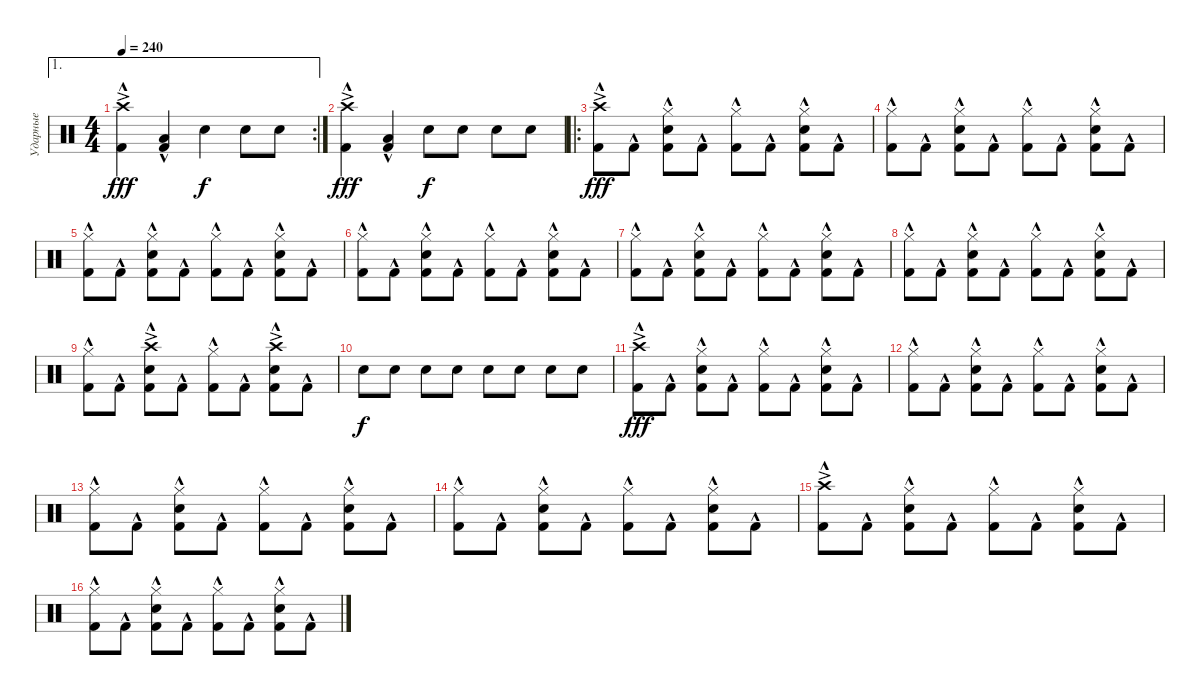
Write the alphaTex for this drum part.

\track ("Ударные" "Ударные") {instrument percussion}
\staff {score}
\articulation defaults
\ae 1
\rc 2
\ts (4 4)
\tempo 240
\clef neutral
\ks c
("Crash high (hit)"{ac} "Kick (hit) 2"{hac}).4{dy fff} ("Low Floor Tom (hit)"{hac} "Kick (hit) 2"{hac}).4 "Snare (hit) 2".4{dy f} "Snare (hit) 2".8 "Snare (hit) 2".8 |
("Crash high (hit)"{ac} "Kick (hit) 2"{hac}).4{dy fff} ("Low Floor Tom (hit)"{hac} "Kick (hit) 2"{hac}).4 "Snare (hit) 2".8{dy f} "Snare (hit) 2".8 "Snare (hit) 2".8 "Snare (hit) 2".8 |
\ro
("Crash high (hit)"{ac} "Kick (hit) 2"{hac}).8{dy fff} "Kick (hit) 2"{hac}.8 ("Hi-Hat (closed)" "Snare (hit) 2" "Kick (hit) 2"{hac}).8 "Kick (hit) 2"{hac}.8 ("Hi-Hat (closed)" "Kick (hit) 2"{hac}).8 "Kick (hit) 2"{hac}.8 ("Hi-Hat (closed)" "Snare (hit) 2" "Kick (hit) 2"{hac}).8 "Kick (hit) 2"{hac}.8 |
("Hi-Hat (closed)" "Kick (hit) 2"{hac}).8 "Kick (hit) 2"{hac}.8 ("Hi-Hat (closed)" "Snare (hit) 2" "Kick (hit) 2"{hac}).8 "Kick (hit) 2"{hac}.8 ("Hi-Hat (closed)" "Kick (hit) 2"{hac}).8 "Kick (hit) 2"{hac}.8 ("Hi-Hat (closed)" "Snare (hit) 2" "Kick (hit) 2"{hac}).8 "Kick (hit) 2"{hac}.8 |
("Hi-Hat (closed)" "Kick (hit) 2"{hac}).8 "Kick (hit) 2"{hac}.8 ("Hi-Hat (closed)" "Snare (hit) 2" "Kick (hit) 2"{hac}).8 "Kick (hit) 2"{hac}.8 ("Hi-Hat (closed)" "Kick (hit) 2"{hac}).8 "Kick (hit) 2"{hac}.8 ("Hi-Hat (closed)" "Snare (hit) 2" "Kick (hit) 2"{hac}).8 "Kick (hit) 2"{hac}.8 |
("Hi-Hat (closed)" "Kick (hit) 2"{hac}).8 "Kick (hit) 2"{hac}.8 ("Hi-Hat (closed)" "Snare (hit) 2" "Kick (hit) 2"{hac}).8 "Kick (hit) 2"{hac}.8 ("Hi-Hat (closed)" "Kick (hit) 2"{hac}).8 "Kick (hit) 2"{hac}.8 ("Hi-Hat (closed)" "Snare (hit) 2" "Kick (hit) 2"{hac}).8 "Kick (hit) 2"{hac}.8 |
("Hi-Hat (closed)" "Kick (hit) 2"{hac}).8 "Kick (hit) 2"{hac}.8 ("Hi-Hat (closed)" "Snare (hit) 2" "Kick (hit) 2"{hac}).8 "Kick (hit) 2"{hac}.8 ("Hi-Hat (closed)" "Kick (hit) 2"{hac}).8 "Kick (hit) 2"{hac}.8 ("Hi-Hat (closed)" "Snare (hit) 2" "Kick (hit) 2"{hac}).8 "Kick (hit) 2"{hac}.8 |
("Hi-Hat (closed)" "Kick (hit) 2"{hac}).8 "Kick (hit) 2"{hac}.8 ("Hi-Hat (closed)" "Snare (hit) 2" "Kick (hit) 2"{hac}).8 "Kick (hit) 2"{hac}.8 ("Hi-Hat (closed)" "Kick (hit) 2"{hac}).8 "Kick (hit) 2"{hac}.8 ("Hi-Hat (closed)" "Snare (hit) 2" "Kick (hit) 2"{hac}).8 "Kick (hit) 2"{hac}.8 |
("Hi-Hat (closed)" "Kick (hit) 2"{hac}).8 "Kick (hit) 2"{hac}.8 ("Crash high (hit)"{ac} "Snare (hit) 2" "Kick (hit) 2"{hac}).8 "Kick (hit) 2"{hac}.8 ("Hi-Hat (closed)" "Kick (hit) 2"{hac}).8 "Kick (hit) 2"{hac}.8 ("Crash high (hit)"{ac} "Snare (hit) 2" "Kick (hit) 2"{hac}).8 "Kick (hit) 2"{hac}.8 |
"Snare (hit) 2".8{dy f} "Snare (hit) 2".8 "Snare (hit) 2".8 "Snare (hit) 2".8 "Snare (hit) 2".8 "Snare (hit) 2".8 "Snare (hit) 2".8 "Snare (hit) 2".8 |
("Crash high (hit)"{ac} "Kick (hit) 2"{hac}).8{dy fff} "Kick (hit) 2"{hac}.8 ("Hi-Hat (closed)" "Snare (hit) 2" "Kick (hit) 2"{hac}).8 "Kick (hit) 2"{hac}.8 ("Hi-Hat (closed)" "Kick (hit) 2"{hac}).8 "Kick (hit) 2"{hac}.8 ("Hi-Hat (closed)" "Snare (hit) 2" "Kick (hit) 2"{hac}).8 "Kick (hit) 2"{hac}.8 |
("Hi-Hat (closed)" "Kick (hit) 2"{hac}).8 "Kick (hit) 2"{hac}.8 ("Hi-Hat (closed)" "Snare (hit) 2" "Kick (hit) 2"{hac}).8 "Kick (hit) 2"{hac}.8 ("Hi-Hat (closed)" "Kick (hit) 2"{hac}).8 "Kick (hit) 2"{hac}.8 ("Hi-Hat (closed)" "Snare (hit) 2" "Kick (hit) 2"{hac}).8 "Kick (hit) 2"{hac}.8 |
("Hi-Hat (closed)" "Kick (hit) 2"{hac}).8 "Kick (hit) 2"{hac}.8 ("Hi-Hat (closed)" "Snare (hit) 2" "Kick (hit) 2"{hac}).8 "Kick (hit) 2"{hac}.8 ("Hi-Hat (closed)" "Kick (hit) 2"{hac}).8 "Kick (hit) 2"{hac}.8 ("Hi-Hat (closed)" "Snare (hit) 2" "Kick (hit) 2"{hac}).8 "Kick (hit) 2"{hac}.8 |
("Hi-Hat (closed)" "Kick (hit) 2"{hac}).8 "Kick (hit) 2"{hac}.8 ("Hi-Hat (closed)" "Snare (hit) 2" "Kick (hit) 2"{hac}).8 "Kick (hit) 2"{hac}.8 ("Hi-Hat (closed)" "Kick (hit) 2"{hac}).8 "Kick (hit) 2"{hac}.8 ("Hi-Hat (closed)" "Snare (hit) 2" "Kick (hit) 2"{hac}).8 "Kick (hit) 2"{hac}.8 |
("Crash high (hit)"{ac} "Kick (hit) 2"{hac}).8 "Kick (hit) 2"{hac}.8 ("Hi-Hat (closed)" "Snare (hit) 2" "Kick (hit) 2"{hac}).8 "Kick (hit) 2"{hac}.8 ("Hi-Hat (closed)" "Kick (hit) 2"{hac}).8 "Kick (hit) 2"{hac}.8 ("Hi-Hat (closed)" "Snare (hit) 2" "Kick (hit) 2"{hac}).8 "Kick (hit) 2"{hac}.8 |
("Hi-Hat (closed)" "Kick (hit) 2"{hac}).8 "Kick (hit) 2"{hac}.8 ("Hi-Hat (closed)" "Snare (hit) 2" "Kick (hit) 2"{hac}).8 "Kick (hit) 2"{hac}.8 ("Hi-Hat (closed)" "Kick (hit) 2"{hac}).8 "Kick (hit) 2"{hac}.8 ("Hi-Hat (closed)" "Snare (hit) 2" "Kick (hit) 2"{hac}).8 "Kick (hit) 2"{hac}.8
